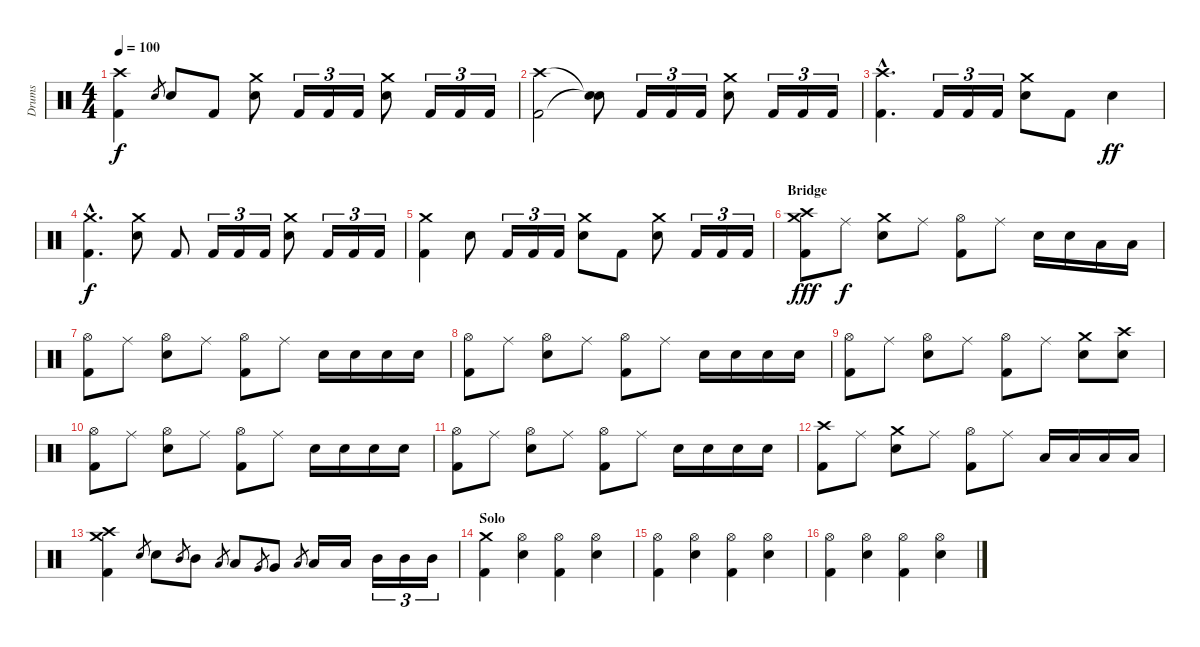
\track ("Drums" "Drums") {instrument percussion}
\staff {score}
\articulation defaults
\ts (4 4)
\tempo 100
\clef neutral
\ks c
("Crash high (hit)" "Kick (hit) 2").4{dy f} "Electric Snare (hit)".8{gr} "Electric Snare (hit)".8 "Kick (hit) 2".8 ("Crash medium (hit)" "Snare (hit) 2").8 "Kick (hit) 2".16{tu (3 2)} "Kick (hit) 2".16{tu (3 2)} "Kick (hit) 2".16{tu (3 2)} ("Crash medium (hit)" "Snare (hit) 2").8 "Kick (hit) 2".16{tu (3 2)} "Kick (hit) 2".16{tu (3 2)} "Kick (hit) 2".16{tu (3 2)} |
("Crash high (hit)" "Kick (hit) 2").2 ("Snare (hit)"{t} "Snare (hit)"{t}).8 "Kick (hit) 2".16{tu (3 2)} "Kick (hit) 2".16{tu (3 2)} "Kick (hit) 2".16{tu (3 2)} ("Crash medium (hit)" "Snare (hit) 2").8 "Kick (hit) 2".16{tu (3 2)} "Kick (hit) 2".16{tu (3 2)} "Kick (hit) 2".16{tu (3 2)} |
("Crash high (hit)"{hac} "Kick (hit) 2"{hac}).4{d} "Kick (hit) 2".16{tu (3 2)} "Kick (hit) 2".16{tu (3 2)} "Kick (hit) 2".16{tu (3 2)} ("Crash medium (hit)" "Snare (hit) 2").8 "Kick (hit) 2".8 "Electric Snare (hit)".4{dy ff} |
("Crash medium (hit)"{hac} "Kick (hit) 2"{hac}).4{d dy f} ("Crash medium (hit)" "Snare (hit) 2").8 "Kick (hit) 2".8 "Kick (hit) 2".16{tu (3 2)} "Kick (hit) 2".16{tu (3 2)} "Kick (hit) 2".16{tu (3 2)} ("Crash medium (hit)" "Snare (hit) 2").8 "Kick (hit) 2".16{tu (3 2)} "Kick (hit) 2".16{tu (3 2)} "Kick (hit) 2".16{tu (3 2)} |
("Crash medium (hit)" "Kick (hit) 2").4 "Snare (hit) 2".8 "Kick (hit) 2".16{tu (3 2)} "Kick (hit) 2".16{tu (3 2)} "Kick (hit) 2".16{tu (3 2)} ("Crash medium (hit)" "Snare (hit) 2").8 "Kick (hit) 2".8 ("Crash medium (hit)" "Snare (hit) 2").8 "Kick (hit) 2".16{tu (3 2)} "Kick (hit) 2".16{tu (3 2)} "Kick (hit) 2".16{tu (3 2)} |
\section ("" "Bridge")
("Crash high (hit)" "Crash medium (hit)" "Kick (hit) 2").8{dy fff} "Ride (middle)".8{dy f} ("Crash medium (hit)" "Snare (hit) 2").8 "Ride (middle)".8 ("Hi-Hat (open)" "Kick (hit) 2").8 "Ride (middle)".8 "Electric Snare (hit)".16 "Electric Snare (hit)".16 "Low Floor Tom (hit)".16 "Low Floor Tom (hit)".16 |
("Hi-Hat (open)" "Kick (hit) 2").8 "Ride (middle)".8 ("Hi-Hat (open)" "Snare (hit) 2").8 "Ride (middle)".8 ("Hi-Hat (open)" "Kick (hit) 2").8 "Ride (middle)".8 "Electric Snare (hit)".16 "Electric Snare (hit)".16 "Electric Snare (hit)".16 "Electric Snare (hit)".16 |
("Hi-Hat (open)" "Kick (hit) 2").8 "Ride (middle)".8 ("Hi-Hat (open)" "Snare (hit) 2").8 "Ride (middle)".8 ("Hi-Hat (open)" "Kick (hit) 2").8 "Ride (middle)".8 "Electric Snare (hit)".16 "Electric Snare (hit)".16 "Electric Snare (hit)".16 "Electric Snare (hit)".16 |
("Hi-Hat (open)" "Kick (hit) 2").8 "Ride (middle)".8 ("Hi-Hat (open)" "Snare (hit) 2").8 "Ride (middle)".8 ("Hi-Hat (open)" "Kick (hit) 2").8 "Ride (middle)".8 ("Crash medium (hit)" "Snare (hit) 2").8 ("Crash high (hit)" "Snare (hit) 2").8 |
("Hi-Hat (open)" "Kick (hit) 2").8 "Ride (middle)".8 ("Hi-Hat (open)" "Snare (hit) 2").8 "Ride (middle)".8 ("Hi-Hat (open)" "Kick (hit) 2").8 "Ride (middle)".8 "Electric Snare (hit)".16 "Electric Snare (hit)".16 "Electric Snare (hit)".16 "Electric Snare (hit)".16 |
("Hi-Hat (open)" "Kick (hit) 2").8 "Ride (middle)".8 ("Hi-Hat (open)" "Snare (hit) 2").8 "Ride (middle)".8 ("Hi-Hat (open)" "Kick (hit) 2").8 "Ride (middle)".8 "Snare (hit) 2".16 "Snare (hit) 2".16 "Snare (hit) 2".16 "Snare (hit) 2".16 |
("Crash high (hit)" "Kick (hit) 2").8 "Ride (middle)".8 ("Crash medium (hit)" "Snare (hit) 2").8 "Ride (middle)".8 ("Hi-Hat (open)" "Kick (hit) 2").8 "Ride (middle)".8 "Low Tom (hit)".16 "Low Tom (hit)".16 "Low Tom (hit)".16 "Low Tom (hit)".16 |
("Crash high (hit)" "Crash medium (hit)" "Kick (hit) 2").4 "Electric Snare (hit)".8{gr} "Electric Snare (hit)".8 "Mid Tom (hit)".8{gr} "Mid Tom (hit)".8 "Low Tom (hit)".8{gr} "Low Tom (hit)".8 "Very Low Tom (hit)".8{gr} "Very Low Tom (hit)".8 "Low Tom (hit)".8{gr} "Low Tom (hit)".16 "Low Tom (hit)".16 "Mid Tom (hit)".16{tu (3 2)} "Mid Tom (hit)".16{tu (3 2)} "Mid Tom (hit)".16{tu (3 2)} |
\section ("" "Solo")
("Crash medium (hit)" "Kick (hit) 2").4 ("Hi-Hat (open)" "Snare (hit) 2").4 ("Hi-Hat (open)" "Kick (hit) 2").4 ("Hi-Hat (open)" "Snare (hit) 2").4 |
("Hi-Hat (open)" "Kick (hit) 2").4 ("Hi-Hat (open)" "Snare (hit) 2").4 ("Hi-Hat (open)" "Kick (hit) 2").4 ("Hi-Hat (open)" "Snare (hit) 2").4 |
("Hi-Hat (open)" "Kick (hit) 2").4 ("Hi-Hat (open)" "Snare (hit) 2").4 ("Hi-Hat (open)" "Kick (hit) 2").4 ("Hi-Hat (open)" "Snare (hit) 2").4
